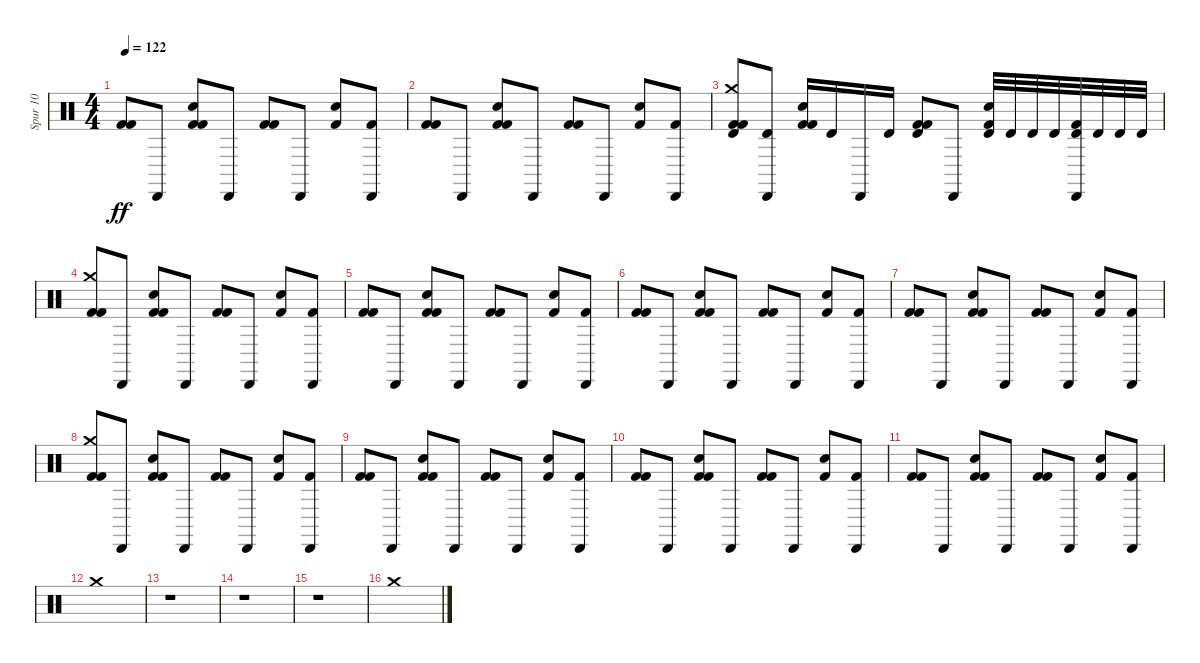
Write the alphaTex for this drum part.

\track ("Spur 10" "Spur 10") {instrument percussion}
\staff {score}
\articulation defaults
\ts (4 4)
\tempo 122
\clef neutral
\ks c
("Kick (hit) 2" "Kick (hit) 2").8{dy ff} "Cabasa (hit)".8 ("Kick (hit) 2" "Kick (hit) 2" "Hand Clap (hit)").8 "Cabasa (hit)".8 ("Kick (hit) 2" "Kick (hit) 2").8 "Cabasa (hit)".8 ("Hand Clap (hit)" "Kick (hit) 2").8 ("Cabasa (hit)" "Kick (hit) 2").8 |
("Kick (hit) 2" "Kick (hit) 2").8 "Cabasa (hit)".8 ("Kick (hit) 2" "Kick (hit) 2" "Hand Clap (hit)").8 "Cabasa (hit)".8 ("Kick (hit) 2" "Kick (hit) 2").8 "Cabasa (hit)".8 ("Hand Clap (hit)" "Kick (hit) 2").8 ("Cabasa (hit)" "Kick (hit) 2").8 |
("Timbale high (hit)" "Crash medium (hit)" "Kick (hit) 2" "Kick (hit) 2").8 ("Timbale high (hit)" "Cabasa (hit)").8 ("Kick (hit) 2" "Kick (hit) 2" "Hand Clap (hit)").16 "Timbale high (hit)".16 "Cabasa (hit)".16 "Timbale high (hit)".16 ("Timbale high (hit)" "Kick (hit) 2" "Kick (hit) 2").8 "Cabasa (hit)".8 ("Hand Clap (hit)" "Timbale high (hit)" "Kick (hit) 2").32 "Timbale high (hit)".32 "Timbale high (hit)".32 "Timbale high (hit)".32 ("Timbale high (hit)" "Cabasa (hit)" "Kick (hit) 2").32 "Timbale high (hit)".32 "Timbale high (hit)".32 "Timbale high (hit)".32 |
("Crash medium (hit)" "Kick (hit) 2" "Kick (hit) 2").8 "Cabasa (hit)".8 ("Kick (hit) 2" "Kick (hit) 2" "Hand Clap (hit)").8 "Cabasa (hit)".8 ("Kick (hit) 2" "Kick (hit) 2").8 "Cabasa (hit)".8 ("Hand Clap (hit)" "Kick (hit) 2").8 ("Cabasa (hit)" "Kick (hit) 2").8 |
("Kick (hit) 2" "Kick (hit) 2").8 "Cabasa (hit)".8 ("Kick (hit) 2" "Kick (hit) 2" "Hand Clap (hit)").8 "Cabasa (hit)".8 ("Kick (hit) 2" "Kick (hit) 2").8 "Cabasa (hit)".8 ("Hand Clap (hit)" "Kick (hit) 2").8 ("Cabasa (hit)" "Kick (hit) 2").8 |
("Kick (hit) 2" "Kick (hit) 2").8 "Cabasa (hit)".8 ("Kick (hit) 2" "Kick (hit) 2" "Hand Clap (hit)").8 "Cabasa (hit)".8 ("Kick (hit) 2" "Kick (hit) 2").8 "Cabasa (hit)".8 ("Hand Clap (hit)" "Kick (hit) 2").8 ("Cabasa (hit)" "Kick (hit) 2").8 |
("Kick (hit) 2" "Kick (hit) 2").8 "Cabasa (hit)".8 ("Kick (hit) 2" "Kick (hit) 2" "Hand Clap (hit)").8 "Cabasa (hit)".8 ("Kick (hit) 2" "Kick (hit) 2").8 "Cabasa (hit)".8 ("Hand Clap (hit)" "Kick (hit) 2").8 ("Cabasa (hit)" "Kick (hit) 2").8 |
("Crash medium (hit)" "Kick (hit) 2" "Kick (hit) 2").8 "Cabasa (hit)".8 ("Kick (hit) 2" "Kick (hit) 2" "Hand Clap (hit)").8 "Cabasa (hit)".8 ("Kick (hit) 2" "Kick (hit) 2").8 "Cabasa (hit)".8 ("Hand Clap (hit)" "Kick (hit) 2").8 ("Cabasa (hit)" "Kick (hit) 2").8 |
("Kick (hit) 2" "Kick (hit) 2").8 "Cabasa (hit)".8 ("Kick (hit) 2" "Kick (hit) 2" "Hand Clap (hit)").8 "Cabasa (hit)".8 ("Kick (hit) 2" "Kick (hit) 2").8 "Cabasa (hit)".8 ("Hand Clap (hit)" "Kick (hit) 2").8 ("Cabasa (hit)" "Kick (hit) 2").8 |
("Kick (hit) 2" "Kick (hit) 2").8 "Cabasa (hit)".8 ("Kick (hit) 2" "Kick (hit) 2" "Hand Clap (hit)").8 "Cabasa (hit)".8 ("Kick (hit) 2" "Kick (hit) 2").8 "Cabasa (hit)".8 ("Hand Clap (hit)" "Kick (hit) 2").8 ("Cabasa (hit)" "Kick (hit) 2").8 |
("Kick (hit) 2" "Kick (hit) 2").8 "Cabasa (hit)".8 ("Kick (hit) 2" "Kick (hit) 2" "Hand Clap (hit)").8 "Cabasa (hit)".8 ("Kick (hit) 2" "Kick (hit) 2").8 "Cabasa (hit)".8 ("Hand Clap (hit)" "Kick (hit) 2").8 ("Cabasa (hit)" "Kick (hit) 2").8 |
"Crash medium (hit)".1 |
r.1 |
r.1 |
r.1 |
"Crash medium (hit)".1
